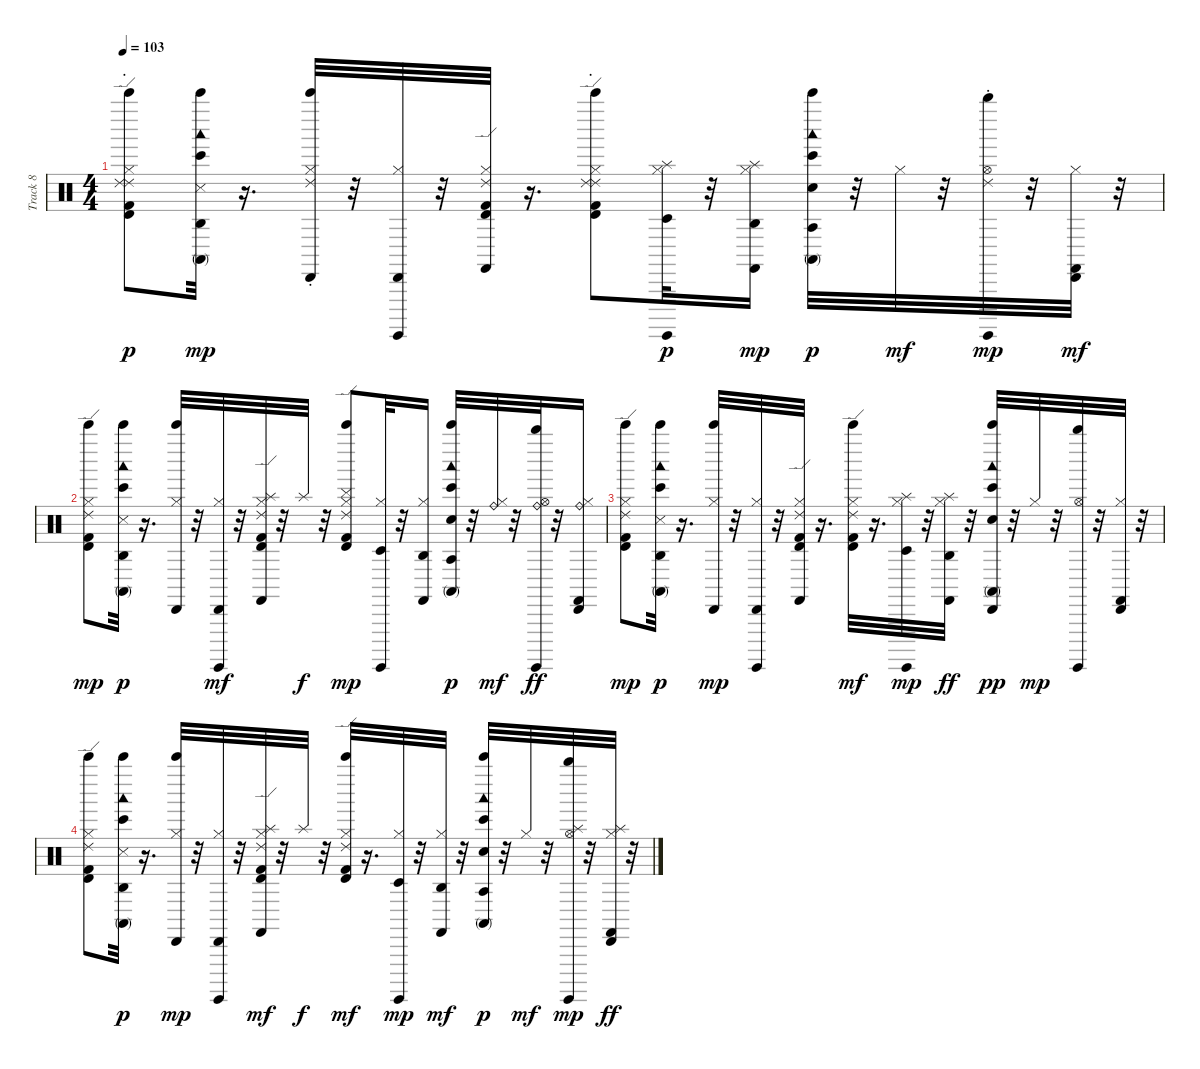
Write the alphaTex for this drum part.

\track ("Track 8" "Track 8") {instrument percussion}
\staff {score}
\articulation defaults
\ts (4 4)
\tempo 103
\clef neutral
\ks c
("Timbale high (hit)" "Ride (edge) 2" "Kick (hit) 2" "Bell Tree (hit)" "Hi-Hat (closed)" "Ride (choke) 2").8{dy p} ("Agogo high (hit)" "Bongo High (hit)" "Conga high (mute)" "Snare (side stick) 3" "Woodblock low (hit)" "Bell Tree (hit)").32{dy mp} r.16{d} ("Cabasa (hit)" "Bell Tree (hit)" "Hi-Hat (closed)" "Ride (choke) 2").32 r.32 ("Cabasa (hit)" "Surdo (hit)" "Hi-Hat (closed)").32 r.32 ("Timbale high (hit)" "Ride (edge) 2" "Kick (hit) 2" "Castanets (hit)" "Hi-Hat (closed)").32 r.16{d} ("Timbale high (hit)" "Ride (edge) 2" "Kick (hit) 2" "Bell Tree (hit)" "Hi-Hat (closed)" "Ride (choke) 2").8 ("Timbale low (hit)" "Surdo (hit)" "Hi-Hat (closed)" "Splash (hit)").32{dy p} r.32 ("Agogo high (hit)" "Castanets (hit)" "Hi-Hat (closed)" "Splash (hit)").16{dy mp} ("Agogo tow (hit)" "Bongo High (hit)" "Conga high (mute)" "Electric Snare (hit)" "Woodblock low (hit)" "Bell Tree (hit)").32{dy p} r.32 "Hi-Hat (closed)".32{dy mf} r.32 ("Whistle high (hit)" "Surdo (hit)" "Hi-Hat (open)" "Ride (choke) 2").32{dy mp} r.32 ("Cabasa (hit)" "Castanets (hit)" "Hi-Hat (closed)").32{dy mf} r.32 |
("Timbale high (hit)" "Ride (edge) 2" "Kick (hit) 2" "Bell Tree (hit)" "Hi-Hat (closed)").8{dy mp} ("Agogo high (hit)" "Bongo High (hit)" "Conga high (mute)" "Snare (side stick) 3" "Woodblock low (hit)" "Bell Tree (hit)").32{dy p} r.16{d} ("Cabasa (hit)" "Bell Tree (hit)" "Hi-Hat (closed)").32 r.32 ("Cabasa (hit)" "Surdo (hit)" "Hi-Hat (closed)").32{dy mf} r.32 ("Timbale high (hit)" "Ride (edge) 2" "Kick (hit) 2" "Castanets (hit)" "Splash (hit)" "Hi-Hat (closed)").32 r.32 "Splash (hit)".32{dy f} r.32 ("Timbale high (hit)" "Ride (edge) 2" "Kick (hit) 2" "Bell Tree (hit)" "Hi-Hat (closed)" "Cymbal (hit)").8{dy mp} ("Timbale low (hit)" "Surdo (hit)" "Hi-Hat (closed)").32 r.32 ("Agogo high (hit)" "Castanets (hit)" "Hi-Hat (closed)").16 ("Agogo tow (hit)" "Bongo High (hit)" "Conga high (mute)" "Electric Snare (hit)" "Woodblock low (hit)" "Bell Tree (hit)").32{dy p} r.32 ("Hi-Hat (closed)" "Ride (bell)").32{dy mf} r.32 ("Whistle high (hit)" "Surdo (hit)" "Hi-Hat (open)" "Ride (bell)").32{dy ff} r.32 ("Cabasa (hit)" "Castanets (hit)" "Hi-Hat (closed)" "Ride (bell)").16 |
("Timbale high (hit)" "Ride (edge) 2" "Kick (hit) 2" "Bell Tree (hit)" "Hi-Hat (closed)").8{dy mp} ("Agogo high (hit)" "Bongo High (hit)" "Conga high (mute)" "Snare (side stick) 3" "Woodblock low (hit)" "Bell Tree (hit)").32{dy p} r.16{d} ("Cabasa (hit)" "Bell Tree (hit)" "Hi-Hat (closed)").32{dy mp} r.32 ("Cabasa (hit)" "Surdo (hit)" "Hi-Hat (closed)").32 r.32 ("Timbale high (hit)" "Ride (edge) 2" "Kick (hit) 2" "Castanets (hit)" "Hi-Hat (closed)").32 r.16{d} ("Timbale high (hit)" "Ride (edge) 2" "Kick (hit) 2" "Bell Tree (hit)" "Hi-Hat (closed)").32{dy mf} r.16{d} ("Timbale low (hit)" "Surdo (hit)" "Hi-Hat (closed)" "Splash (hit)").32{dy mp} r.32 ("Agogo high (hit)" "Castanets (hit)" "Hi-Hat (closed)" "Splash (hit)").32{dy ff} r.32 ("Cabasa (hit)" "Bongo High (hit)" "Conga high (mute)" "Electric Snare (hit)" "Woodblock low (hit)" "Bell Tree (hit)").32{dy pp} r.32 "Hi-Hat (closed)".32{dy mp} r.32 ("Whistle high (hit)" "Surdo (hit)" "Hi-Hat (open)").32 r.32 ("Cabasa (hit)" "Castanets (hit)" "Hi-Hat (closed)").32 r.32 |
("Timbale high (hit)" "Ride (edge) 2" "Kick (hit) 2" "Bell Tree (hit)" "Hi-Hat (closed)").8 ("Agogo high (hit)" "Bongo High (hit)" "Conga high (mute)" "Snare (side stick) 3" "Woodblock low (hit)" "Bell Tree (hit)").32{dy p} r.16{d} ("Cabasa (hit)" "Bell Tree (hit)" "Hi-Hat (closed)").32{dy mp} r.32 ("Cabasa (hit)" "Surdo (hit)" "Hi-Hat (closed)").32 r.32 ("Timbale high (hit)" "Ride (edge) 2" "Kick (hit) 2" "Castanets (hit)" "Splash (hit)" "Hi-Hat (closed)").32{dy mf} r.32 "Splash (hit)".32{dy f} r.32 ("Timbale high (hit)" "Ride (edge) 2" "Kick (hit) 2" "Bell Tree (hit)" "Hi-Hat (closed)").32{dy mf} r.16{d} ("Timbale low (hit)" "Surdo (hit)" "Hi-Hat (closed)").32{dy mp} r.32 ("Agogo high (hit)" "Castanets (hit)" "Hi-Hat (closed)").32{dy mf} r.32 ("Agogo tow (hit)" "Bongo High (hit)" "Conga high (mute)" "Electric Snare (hit)" "Woodblock low (hit)" "Bell Tree (hit)").32{dy p} r.32 "Hi-Hat (closed)".32{dy mf} r.32 ("Whistle high (hit)" "Surdo (hit)" "Hi-Hat (open)" "Splash (hit)").32{dy mp} r.32 ("Cabasa (hit)" "Castanets (hit)" "Hi-Hat (closed)" "Splash (hit)").32{dy ff} r.32
